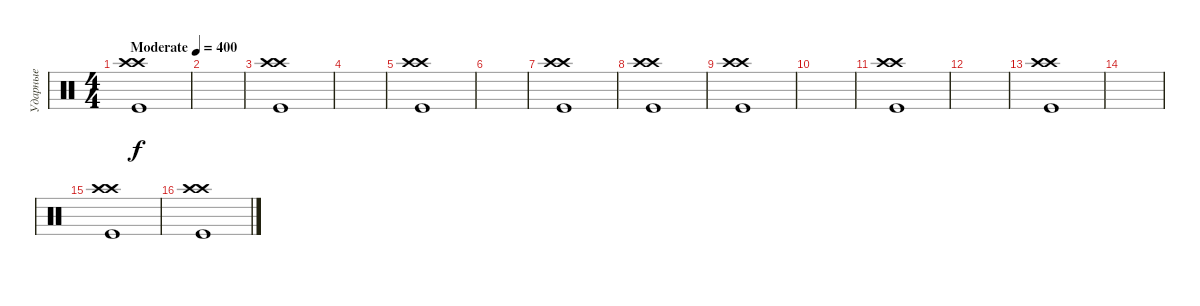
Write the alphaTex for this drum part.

\track ("Ударные" "Ударные") {instrument percussion}
\staff {score}
\articulation defaults
\ts (4 4)
\tempo (400 "Moderate")
\clef neutral
\ks c
("Crash high (hit)" "Crash high (hit)" "Kick (hit)").1{dy f} |
|
("Crash high (hit)" "Crash high (hit)" "Kick (hit)").1 |
|
("Crash high (hit)" "Crash high (hit)" "Kick (hit)").1 |
|
("Crash high (hit)" "Crash high (hit)" "Kick (hit)").1 |
("Crash high (hit)" "Crash high (hit)" "Kick (hit)").1 |
("Crash high (hit)" "Crash high (hit)" "Kick (hit)").1 |
|
("Crash high (hit)" "Crash high (hit)" "Kick (hit)").1 |
|
("Crash high (hit)" "Crash high (hit)" "Kick (hit)").1 |
|
("Crash high (hit)" "Crash high (hit)" "Kick (hit)").1 |
("Crash high (hit)" "Crash high (hit)" "Kick (hit)").1
